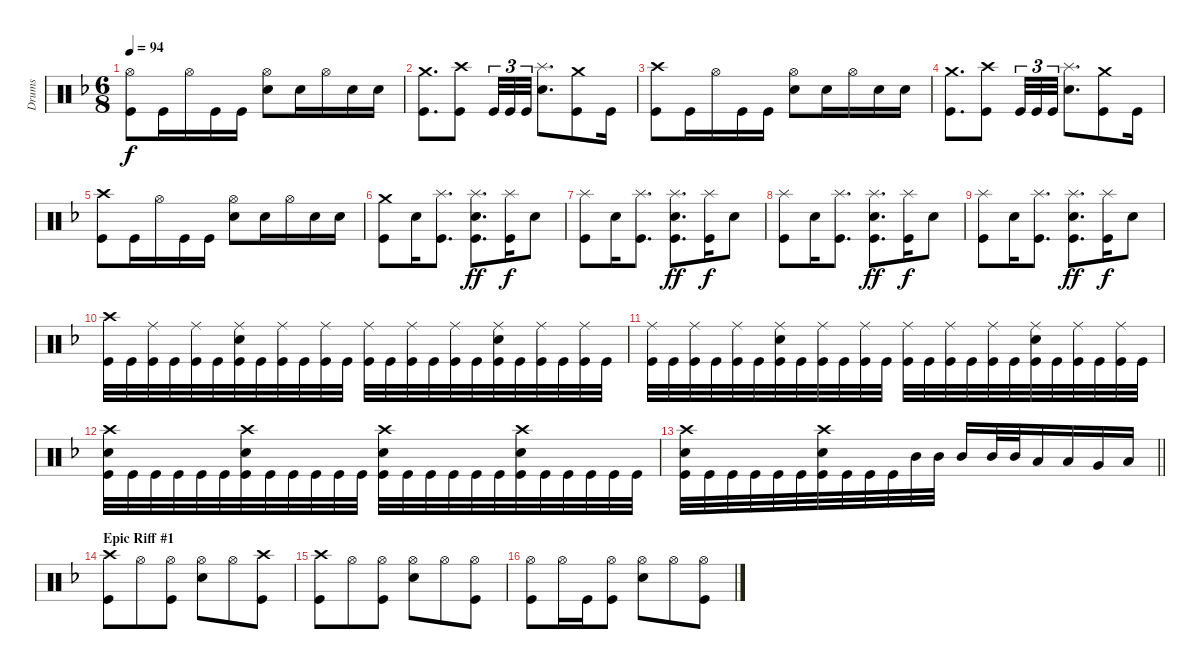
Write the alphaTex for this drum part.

\track ("Drums" "Drums") {instrument percussion bank 10}
\staff {score}
\articulation defaults
\ts (6 8)
\tempo 94
\clef neutral
\ks dminor
("Hi-Hat (open)" "Kick (hit)").8{dy f} "Kick (hit)".16 "Hi-Hat (open)".16 "Kick (hit)".16 "Kick (hit)".16 ("Hi-Hat (open)" "Electric Snare (hit)").8 "Electric Snare (hit)".16 "Hi-Hat (open)".16 "Electric Snare (hit)".16 "Electric Snare (hit)".16 |
("Crash medium (hit)" "Kick (hit)").8{d} ("Crash high (hit)" "Kick (hit)").8 "Kick (hit)".32{tu (3 2)} "Kick (hit)".32{tu (3 2)} "Kick (hit)".32{tu (3 2)} ("Splash (hit)" "Electric Snare (hit)").8{d} ("Crash medium (hit)" "Kick (hit)").8 "Kick (hit)".16 |
("Crash high (hit)" "Kick (hit)").8 "Kick (hit)".16 "Hi-Hat (open)".16 "Kick (hit)".16 "Kick (hit)".16 ("Hi-Hat (open)" "Electric Snare (hit)").8 "Electric Snare (hit)".16 "Hi-Hat (open)".16 "Electric Snare (hit)".16 "Electric Snare (hit)".16 |
("Crash medium (hit)" "Kick (hit)").8{d} ("Crash high (hit)" "Kick (hit)").8 "Kick (hit)".32{tu (3 2)} "Kick (hit)".32{tu (3 2)} "Kick (hit)".32{tu (3 2)} ("Splash (hit)" "Electric Snare (hit)").8{d} ("Crash medium (hit)" "Kick (hit)").8 "Kick (hit)".16 |
("Crash high (hit)" "Kick (hit)").8 "Kick (hit)".16 "Hi-Hat (open)".16 "Kick (hit)".16 "Kick (hit)".16 ("Hi-Hat (open)" "Electric Snare (hit)").8 "Electric Snare (hit)".16 "Hi-Hat (open)".16 "Electric Snare (hit)".16 "Electric Snare (hit)".16 |
("Crash medium (hit)" "Kick (hit)").8 "Electric Snare (hit)".16 ("Splash (hit)" "Kick (hit)").8{d} ("Splash (hit)" "Electric Snare (hit)" "Kick (hit)").8{d dy ff} ("Splash (hit)" "Kick (hit)").16{dy f} "Electric Snare (hit)".8 |
("Splash (hit)" "Kick (hit)").8 "Electric Snare (hit)".16 ("Splash (hit)" "Kick (hit)").8{d} ("Splash (hit)" "Electric Snare (hit)" "Kick (hit)").8{d dy ff} ("Splash (hit)" "Kick (hit)").16{dy f} "Electric Snare (hit)".8 |
("Splash (hit)" "Kick (hit)").8 "Electric Snare (hit)".16 ("Splash (hit)" "Kick (hit)").8{d} ("Splash (hit)" "Electric Snare (hit)" "Kick (hit)").8{d dy ff} ("Splash (hit)" "Kick (hit)").16{dy f} "Electric Snare (hit)".8 |
("Splash (hit)" "Kick (hit)").8 "Electric Snare (hit)".16 ("Splash (hit)" "Kick (hit)").8{d} ("Splash (hit)" "Electric Snare (hit)" "Kick (hit)").8{d dy ff} ("Splash (hit)" "Kick (hit)").16{dy f} "Electric Snare (hit)".8 |
("Crash high (hit)" "Kick (hit)").32 "Kick (hit)".32 ("Ride (middle)" "Kick (hit)").32 "Kick (hit)".32 ("Ride (middle)" "Kick (hit)").32 "Kick (hit)".32 ("Ride (middle)" "Electric Snare (hit)" "Kick (hit)").32 "Kick (hit)".32 ("Ride (middle)" "Kick (hit)").32 "Kick (hit)".32 ("Ride (middle)" "Kick (hit)").32 "Kick (hit)".32 ("Ride (middle)" "Kick (hit)").32 "Kick (hit)".32 ("Ride (middle)" "Kick (hit)").32 "Kick (hit)".32 ("Ride (middle)" "Kick (hit)").32 "Kick (hit)".32 ("Ride (middle)" "Electric Snare (hit)" "Kick (hit)").32 "Kick (hit)".32 ("Ride (middle)" "Kick (hit)").32 "Kick (hit)".32 ("Ride (middle)" "Kick (hit)").32 "Kick (hit)".32 |
("Ride (middle)" "Kick (hit)").32 "Kick (hit)".32 ("Ride (middle)" "Kick (hit)").32 "Kick (hit)".32 ("Ride (middle)" "Kick (hit)").32 "Kick (hit)".32 ("Ride (middle)" "Electric Snare (hit)" "Kick (hit)").32 "Kick (hit)".32 ("Ride (middle)" "Kick (hit)").32 "Kick (hit)".32 ("Ride (middle)" "Kick (hit)").32 "Kick (hit)".32 ("Ride (middle)" "Kick (hit)").32 "Kick (hit)".32 ("Ride (middle)" "Kick (hit)").32 "Kick (hit)".32 ("Ride (middle)" "Kick (hit)").32 "Kick (hit)".32 ("Ride (middle)" "Electric Snare (hit)" "Kick (hit)").32 "Kick (hit)".32 ("Ride (middle)" "Kick (hit)").32 "Kick (hit)".32 ("Ride (middle)" "Kick (hit)").32 "Kick (hit)".32 |
("Crash high (hit)" "Electric Snare (hit)" "Kick (hit)").32 "Kick (hit)".32 "Kick (hit)".32 "Kick (hit)".32 "Kick (hit)".32 "Kick (hit)".32 ("Crash high (hit)" "Electric Snare (hit)" "Kick (hit)").32 "Kick (hit)".32 "Kick (hit)".32 "Kick (hit)".32 "Kick (hit)".32 "Kick (hit)".32 ("Crash high (hit)" "Electric Snare (hit)" "Kick (hit)").32 "Kick (hit)".32 "Kick (hit)".32 "Kick (hit)".32 "Kick (hit)".32 "Kick (hit)".32 ("Crash high (hit)" "Electric Snare (hit)" "Kick (hit)").32 "Kick (hit)".32 "Kick (hit)".32 "Kick (hit)".32 "Kick (hit)".32 "Kick (hit)".32 |
\barLineRight lightlight
("Crash high (hit)" "Electric Snare (hit)" "Kick (hit)").32 "Kick (hit)".32 "Kick (hit)".32 "Kick (hit)".32 "Kick (hit)".32 "Kick (hit)".32 ("Crash high (hit)" "Electric Snare (hit)" "Kick (hit)").32 "Kick (hit)".32 "Kick (hit)".32 "Kick (hit)".32 "Mid Tom (hit)".32 "Mid Tom (hit)".32 "Mid Tom (hit)".16 "Mid Tom (hit)".32 "Mid Tom (hit)".32 "Low Tom (hit)".16 "Low Tom (hit)".16 "Very Low Tom (hit)".16 "Low Floor Tom (hit)".16 |
\section ("" "Epic Riff #1")
("Crash high (hit)" "Kick (hit)").8 "Hi-Hat (open)".8 ("Hi-Hat (open)" "Kick (hit)").8 ("Hi-Hat (open)" "Electric Snare (hit)").8 "Hi-Hat (open)".8 ("Crash high (hit)" "Kick (hit)").8 |
("Crash high (hit)" "Kick (hit)").8 "Hi-Hat (open)".8 ("Hi-Hat (open)" "Kick (hit)").8 ("Hi-Hat (open)" "Electric Snare (hit)").8 "Hi-Hat (open)".8 ("Hi-Hat (open)" "Kick (hit)").8 |
("Hi-Hat (open)" "Kick (hit)").8 "Hi-Hat (open)".16 "Kick (hit)".16 ("Hi-Hat (open)" "Kick (hit)").8 ("Hi-Hat (open)" "Electric Snare (hit)").8 "Hi-Hat (open)".8 ("Hi-Hat (open)" "Kick (hit)").8
